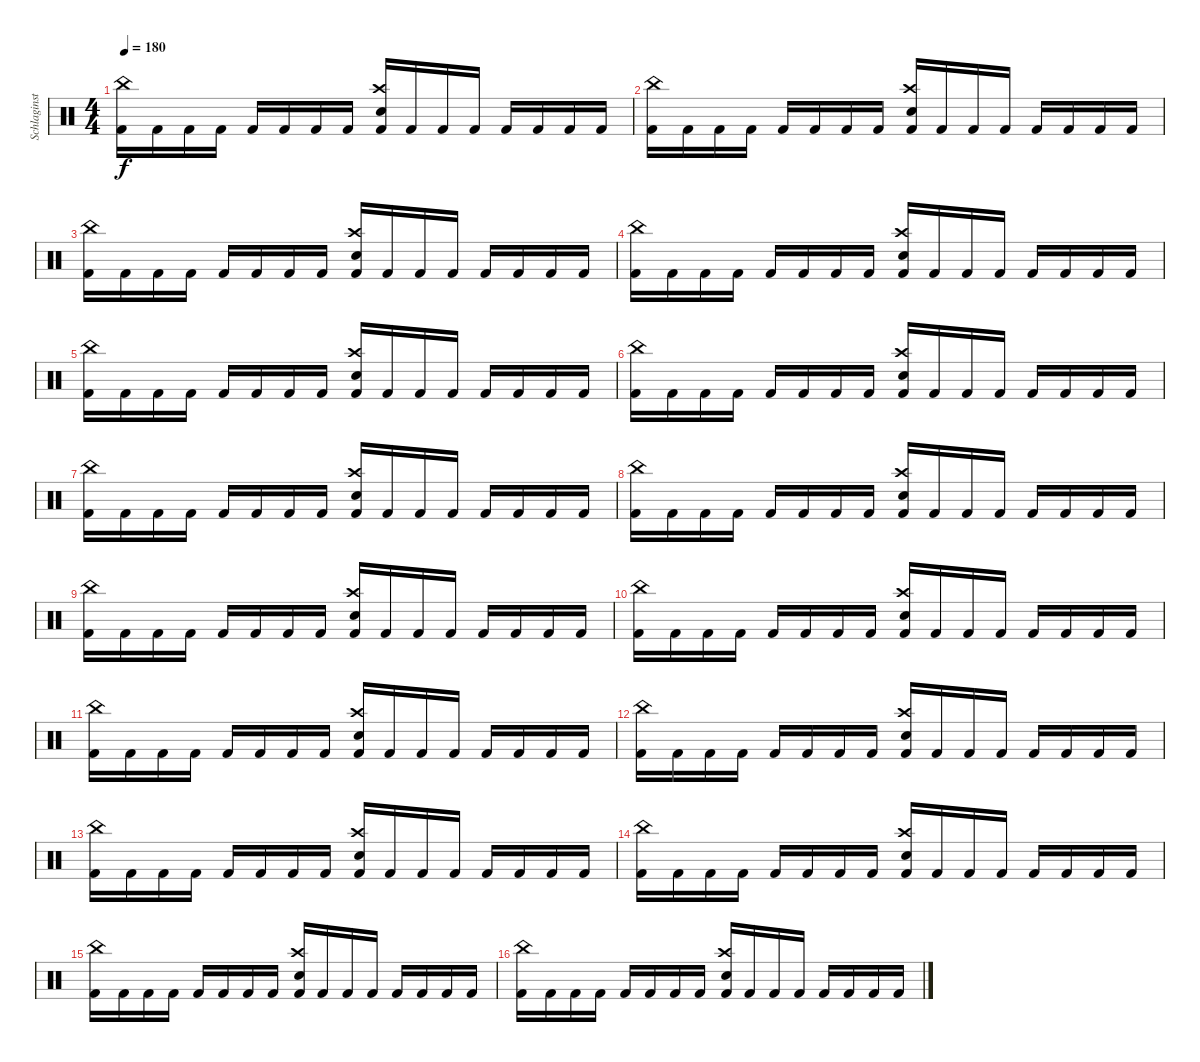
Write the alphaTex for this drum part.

\track ("Schlaginstrumente - Auswahl" "Schlaginst") {instrument percussion}
\staff {score}
\articulation defaults
\ts (4 4)
\tempo 180
\clef neutral
\ks c
("China (hit)" "Kick (hit) 2").16{dy f} "Kick (hit) 2".16 "Kick (hit) 2".16 "Kick (hit) 2".16 "Kick (hit) 2".16 "Kick (hit) 2".16 "Kick (hit) 2".16 "Kick (hit) 2".16 ("Crash high (hit)" "Snare (hit) 2" "Kick (hit) 2").16 "Kick (hit) 2".16 "Kick (hit) 2".16 "Kick (hit) 2".16 "Kick (hit) 2".16 "Kick (hit) 2".16 "Kick (hit) 2".16 "Kick (hit) 2".16 |
("China (hit)" "Kick (hit) 2").16 "Kick (hit) 2".16 "Kick (hit) 2".16 "Kick (hit) 2".16 "Kick (hit) 2".16 "Kick (hit) 2".16 "Kick (hit) 2".16 "Kick (hit) 2".16 ("Crash high (hit)" "Snare (hit) 2" "Kick (hit) 2").16 "Kick (hit) 2".16 "Kick (hit) 2".16 "Kick (hit) 2".16 "Kick (hit) 2".16 "Kick (hit) 2".16 "Kick (hit) 2".16 "Kick (hit) 2".16 |
("China (hit)" "Kick (hit) 2").16 "Kick (hit) 2".16 "Kick (hit) 2".16 "Kick (hit) 2".16 "Kick (hit) 2".16 "Kick (hit) 2".16 "Kick (hit) 2".16 "Kick (hit) 2".16 ("Crash high (hit)" "Snare (hit) 2" "Kick (hit) 2").16 "Kick (hit) 2".16 "Kick (hit) 2".16 "Kick (hit) 2".16 "Kick (hit) 2".16 "Kick (hit) 2".16 "Kick (hit) 2".16 "Kick (hit) 2".16 |
("China (hit)" "Kick (hit) 2").16 "Kick (hit) 2".16 "Kick (hit) 2".16 "Kick (hit) 2".16 "Kick (hit) 2".16 "Kick (hit) 2".16 "Kick (hit) 2".16 "Kick (hit) 2".16 ("Crash high (hit)" "Snare (hit) 2" "Kick (hit) 2").16 "Kick (hit) 2".16 "Kick (hit) 2".16 "Kick (hit) 2".16 "Kick (hit) 2".16 "Kick (hit) 2".16 "Kick (hit) 2".16 "Kick (hit) 2".16 |
("China (hit)" "Kick (hit) 2").16 "Kick (hit) 2".16 "Kick (hit) 2".16 "Kick (hit) 2".16 "Kick (hit) 2".16 "Kick (hit) 2".16 "Kick (hit) 2".16 "Kick (hit) 2".16 ("Crash high (hit)" "Snare (hit) 2" "Kick (hit) 2").16 "Kick (hit) 2".16 "Kick (hit) 2".16 "Kick (hit) 2".16 "Kick (hit) 2".16 "Kick (hit) 2".16 "Kick (hit) 2".16 "Kick (hit) 2".16 |
("China (hit)" "Kick (hit) 2").16 "Kick (hit) 2".16 "Kick (hit) 2".16 "Kick (hit) 2".16 "Kick (hit) 2".16 "Kick (hit) 2".16 "Kick (hit) 2".16 "Kick (hit) 2".16 ("Crash high (hit)" "Snare (hit) 2" "Kick (hit) 2").16 "Kick (hit) 2".16 "Kick (hit) 2".16 "Kick (hit) 2".16 "Kick (hit) 2".16 "Kick (hit) 2".16 "Kick (hit) 2".16 "Kick (hit) 2".16 |
("China (hit)" "Kick (hit) 2").16 "Kick (hit) 2".16 "Kick (hit) 2".16 "Kick (hit) 2".16 "Kick (hit) 2".16 "Kick (hit) 2".16 "Kick (hit) 2".16 "Kick (hit) 2".16 ("Crash high (hit)" "Snare (hit) 2" "Kick (hit) 2").16 "Kick (hit) 2".16 "Kick (hit) 2".16 "Kick (hit) 2".16 "Kick (hit) 2".16 "Kick (hit) 2".16 "Kick (hit) 2".16 "Kick (hit) 2".16 |
("China (hit)" "Kick (hit) 2").16 "Kick (hit) 2".16 "Kick (hit) 2".16 "Kick (hit) 2".16 "Kick (hit) 2".16 "Kick (hit) 2".16 "Kick (hit) 2".16 "Kick (hit) 2".16 ("Crash high (hit)" "Snare (hit) 2" "Kick (hit) 2").16 "Kick (hit) 2".16 "Kick (hit) 2".16 "Kick (hit) 2".16 "Kick (hit) 2".16 "Kick (hit) 2".16 "Kick (hit) 2".16 "Kick (hit) 2".16 |
("China (hit)" "Kick (hit) 2").16 "Kick (hit) 2".16 "Kick (hit) 2".16 "Kick (hit) 2".16 "Kick (hit) 2".16 "Kick (hit) 2".16 "Kick (hit) 2".16 "Kick (hit) 2".16 ("Crash high (hit)" "Snare (hit) 2" "Kick (hit) 2").16 "Kick (hit) 2".16 "Kick (hit) 2".16 "Kick (hit) 2".16 "Kick (hit) 2".16 "Kick (hit) 2".16 "Kick (hit) 2".16 "Kick (hit) 2".16 |
("China (hit)" "Kick (hit) 2").16 "Kick (hit) 2".16 "Kick (hit) 2".16 "Kick (hit) 2".16 "Kick (hit) 2".16 "Kick (hit) 2".16 "Kick (hit) 2".16 "Kick (hit) 2".16 ("Crash high (hit)" "Snare (hit) 2" "Kick (hit) 2").16 "Kick (hit) 2".16 "Kick (hit) 2".16 "Kick (hit) 2".16 "Kick (hit) 2".16 "Kick (hit) 2".16 "Kick (hit) 2".16 "Kick (hit) 2".16 |
("China (hit)" "Kick (hit) 2").16 "Kick (hit) 2".16 "Kick (hit) 2".16 "Kick (hit) 2".16 "Kick (hit) 2".16 "Kick (hit) 2".16 "Kick (hit) 2".16 "Kick (hit) 2".16 ("Crash high (hit)" "Snare (hit) 2" "Kick (hit) 2").16 "Kick (hit) 2".16 "Kick (hit) 2".16 "Kick (hit) 2".16 "Kick (hit) 2".16 "Kick (hit) 2".16 "Kick (hit) 2".16 "Kick (hit) 2".16 |
("China (hit)" "Kick (hit) 2").16 "Kick (hit) 2".16 "Kick (hit) 2".16 "Kick (hit) 2".16 "Kick (hit) 2".16 "Kick (hit) 2".16 "Kick (hit) 2".16 "Kick (hit) 2".16 ("Crash high (hit)" "Snare (hit) 2" "Kick (hit) 2").16 "Kick (hit) 2".16 "Kick (hit) 2".16 "Kick (hit) 2".16 "Kick (hit) 2".16 "Kick (hit) 2".16 "Kick (hit) 2".16 "Kick (hit) 2".16 |
("China (hit)" "Kick (hit) 2").16 "Kick (hit) 2".16 "Kick (hit) 2".16 "Kick (hit) 2".16 "Kick (hit) 2".16 "Kick (hit) 2".16 "Kick (hit) 2".16 "Kick (hit) 2".16 ("Crash high (hit)" "Snare (hit) 2" "Kick (hit) 2").16 "Kick (hit) 2".16 "Kick (hit) 2".16 "Kick (hit) 2".16 "Kick (hit) 2".16 "Kick (hit) 2".16 "Kick (hit) 2".16 "Kick (hit) 2".16 |
("China (hit)" "Kick (hit) 2").16 "Kick (hit) 2".16 "Kick (hit) 2".16 "Kick (hit) 2".16 "Kick (hit) 2".16 "Kick (hit) 2".16 "Kick (hit) 2".16 "Kick (hit) 2".16 ("Crash high (hit)" "Snare (hit) 2" "Kick (hit) 2").16 "Kick (hit) 2".16 "Kick (hit) 2".16 "Kick (hit) 2".16 "Kick (hit) 2".16 "Kick (hit) 2".16 "Kick (hit) 2".16 "Kick (hit) 2".16 |
("China (hit)" "Kick (hit) 2").16 "Kick (hit) 2".16 "Kick (hit) 2".16 "Kick (hit) 2".16 "Kick (hit) 2".16 "Kick (hit) 2".16 "Kick (hit) 2".16 "Kick (hit) 2".16 ("Crash high (hit)" "Snare (hit) 2" "Kick (hit) 2").16 "Kick (hit) 2".16 "Kick (hit) 2".16 "Kick (hit) 2".16 "Kick (hit) 2".16 "Kick (hit) 2".16 "Kick (hit) 2".16 "Kick (hit) 2".16 |
("China (hit)" "Kick (hit) 2").16 "Kick (hit) 2".16 "Kick (hit) 2".16 "Kick (hit) 2".16 "Kick (hit) 2".16 "Kick (hit) 2".16 "Kick (hit) 2".16 "Kick (hit) 2".16 ("Crash high (hit)" "Snare (hit) 2" "Kick (hit) 2").16 "Kick (hit) 2".16 "Kick (hit) 2".16 "Kick (hit) 2".16 "Kick (hit) 2".16 "Kick (hit) 2".16 "Kick (hit) 2".16 "Kick (hit) 2".16
